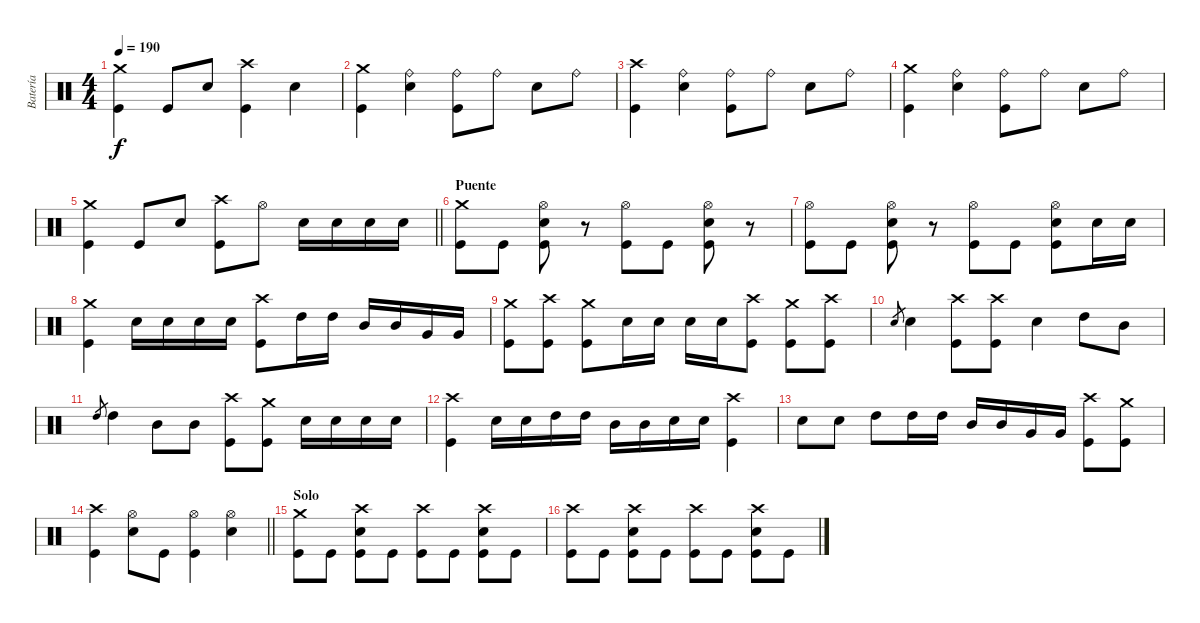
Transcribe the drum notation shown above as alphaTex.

\track ("Batería" "Batería") {instrument percussion}
\staff {score}
\articulation defaults
\ts (4 4)
\tempo 190
\clef neutral
\ks c
("Crash medium (hit)" "Kick (hit)").4{dy f} "Kick (hit)".8 "Electric Snare (hit)".8 ("Crash high (hit)" "Kick (hit)").4 "Electric Snare (hit)".4 |
("Crash medium (hit)" "Kick (hit)").4 ("Ride (bell)" "Electric Snare (hit)").4 ("Ride (bell)" "Kick (hit)").8 "Ride (bell)".8 "Electric Snare (hit)".8 "Ride (bell)".8 |
("Crash high (hit)" "Kick (hit)").4 ("Ride (bell)" "Electric Snare (hit)").4 ("Ride (bell)" "Kick (hit)").8 "Ride (bell)".8 "Electric Snare (hit)".8 "Ride (bell)".8 |
("Crash medium (hit)" "Kick (hit)").4 ("Ride (bell)" "Electric Snare (hit)").4 ("Ride (bell)" "Kick (hit)").8 "Ride (bell)".8 "Electric Snare (hit)".8 "Ride (bell)".8 |
\barLineRight lightlight
("Crash medium (hit)" "Kick (hit)").4 "Kick (hit)".8 "Electric Snare (hit)".8 ("Crash high (hit)" "Kick (hit)").8 "Hi-Hat (open)".8 "Electric Snare (hit)".16 "Electric Snare (hit)".16 "Electric Snare (hit)".16 "Electric Snare (hit)".16 |
\section ("" "Puente")
("Crash medium (hit)" "Kick (hit)").8 "Kick (hit)".8 ("Hi-Hat (open)" "Electric Snare (hit)" "Kick (hit)").8 r.8 ("Hi-Hat (open)" "Kick (hit)").8 "Kick (hit)".8 ("Hi-Hat (open)" "Electric Snare (hit)" "Kick (hit)").8 r.8 |
("Hi-Hat (open)" "Kick (hit)").8 "Kick (hit)".8 ("Hi-Hat (open)" "Electric Snare (hit)" "Kick (hit)").8 r.8 ("Hi-Hat (open)" "Kick (hit)").8 "Kick (hit)".8 ("Hi-Hat (open)" "Electric Snare (hit)" "Kick (hit)").8 "Electric Snare (hit)".16 "Electric Snare (hit)".16 |
("Crash medium (hit)" "Kick (hit)").4 "Electric Snare (hit)".16 "Electric Snare (hit)".16 "Electric Snare (hit)".16 "Electric Snare (hit)".16 ("Crash high (hit)" "Kick (hit)").8 "High Tom (hit)".16 "High Tom (hit)".16 "Mid Tom (hit)".16 "Mid Tom (hit)".16 "Very Low Tom (hit)".16 "Very Low Tom (hit)".16 |
("Crash medium (hit)" "Kick (hit)").8 ("Crash high (hit)" "Kick (hit)").8 ("Crash medium (hit)" "Kick (hit)").8 "Electric Snare (hit)".16 "Electric Snare (hit)".16 "Electric Snare (hit)".16 "Electric Snare (hit)".16 ("Crash high (hit)" "Kick (hit)").8 ("Crash medium (hit)" "Kick (hit)").8 ("Crash high (hit)" "Kick (hit)").8 |
"Electric Snare (hit)".8{gr} "Electric Snare (hit)".4 ("Crash high (hit)" "Kick (hit)").8 ("Crash high (hit)" "Kick (hit)").8 "Electric Snare (hit)".4 "High Tom (hit)".8 "Mid Tom (hit)".8 |
"High Tom (hit)".8{gr} "High Tom (hit)".4 "Mid Tom (hit)".8 "Mid Tom (hit)".8 ("Crash high (hit)" "Kick (hit)").8 ("Crash medium (hit)" "Kick (hit)").8 "Electric Snare (hit)".16 "Electric Snare (hit)".16 "Electric Snare (hit)".16 "Electric Snare (hit)".16 |
("Crash high (hit)" "Kick (hit)").4 "Electric Snare (hit)".16 "Electric Snare (hit)".16 "High Tom (hit)".16 "High Tom (hit)".16 "Mid Tom (hit)".16 "Mid Tom (hit)".16 "Electric Snare (hit)".16 "Electric Snare (hit)".16 ("Crash high (hit)" "Kick (hit)").4 |
"Electric Snare (hit)".8 "Electric Snare (hit)".8 "High Tom (hit)".8 "High Tom (hit)".16 "High Tom (hit)".16 "Mid Tom (hit)".16 "Mid Tom (hit)".16 "Very Low Tom (hit)".16 "Very Low Tom (hit)".16 ("Crash high (hit)" "Kick (hit)").8 ("Crash medium (hit)" "Kick (hit)").8 |
\barLineRight lightlight
("Crash high (hit)" "Kick (hit)").4 ("Hi-Hat (open)" "Electric Snare (hit)").8 "Kick (hit)".8 ("Hi-Hat (open)" "Kick (hit)").4 ("Hi-Hat (open)" "Electric Snare (hit)").4 |
\section ("" "Solo")
("Crash medium (hit)" "Kick (hit)").8 "Kick (hit)".8 ("Crash high (hit)" "Electric Snare (hit)" "Kick (hit)").8 "Kick (hit)".8 ("Crash high (hit)" "Kick (hit)").8 "Kick (hit)".8 ("Crash high (hit)" "Electric Snare (hit)" "Kick (hit)").8 "Kick (hit)".8 |
("Crash high (hit)" "Kick (hit)").8 "Kick (hit)".8 ("Crash high (hit)" "Electric Snare (hit)" "Kick (hit)").8 "Kick (hit)".8 ("Crash high (hit)" "Kick (hit)").8 "Kick (hit)".8 ("Crash high (hit)" "Electric Snare (hit)" "Kick (hit)").8 "Kick (hit)".8
